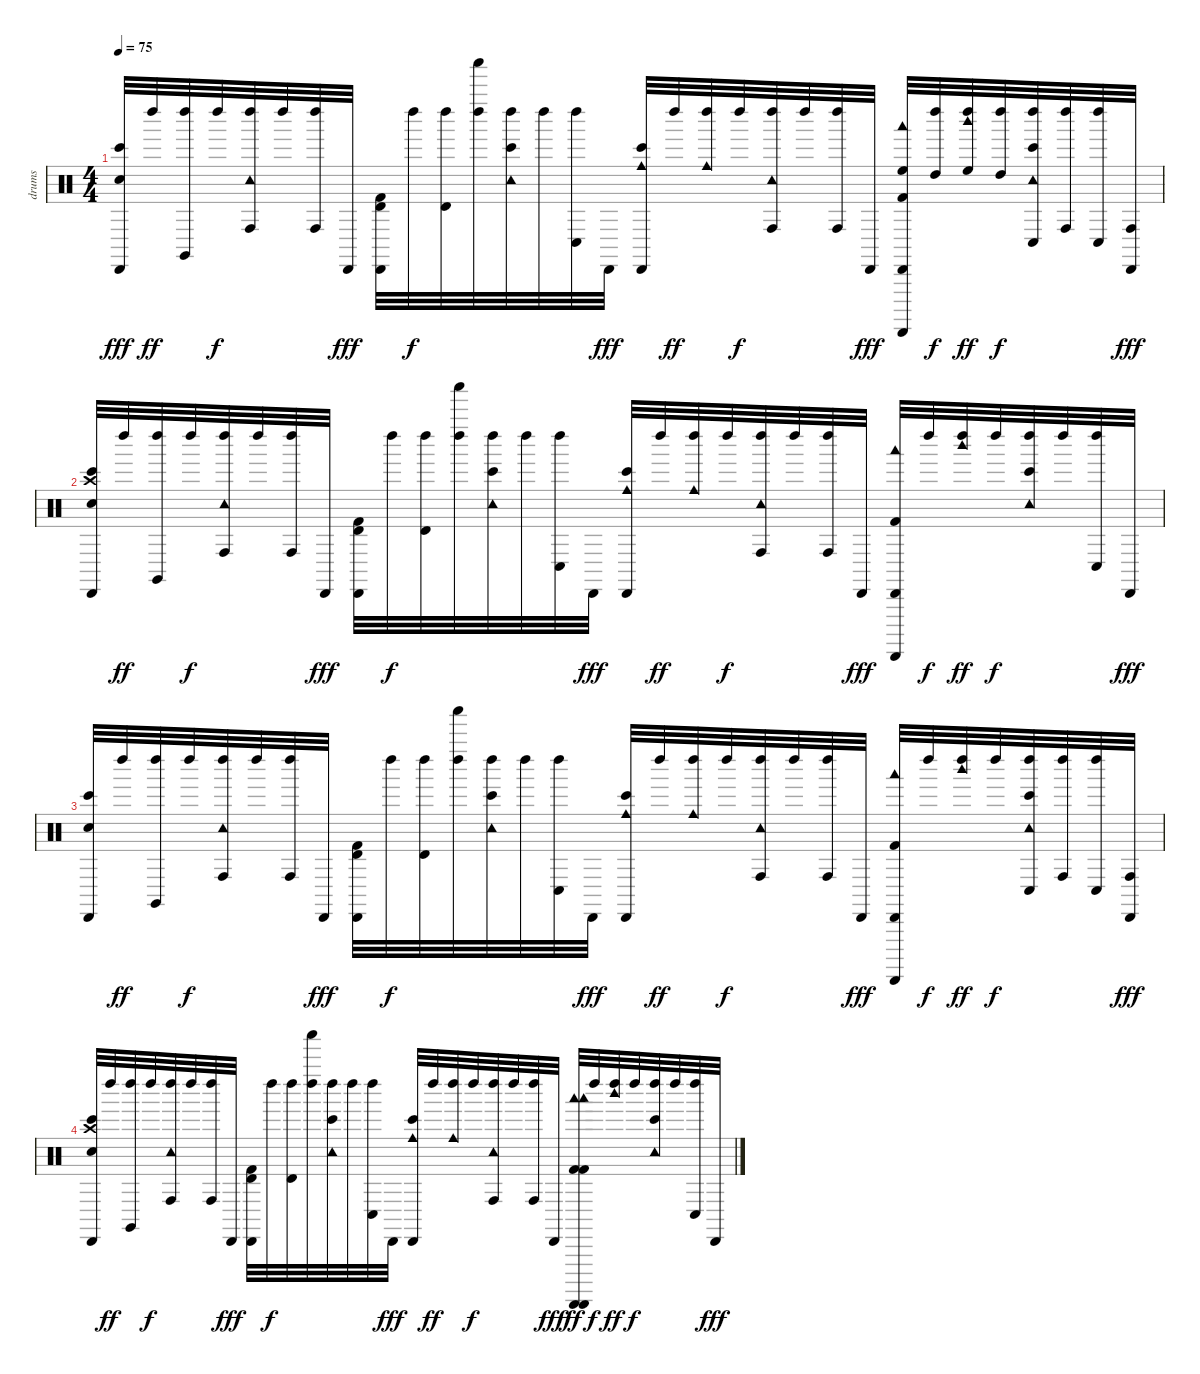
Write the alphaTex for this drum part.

\track ("drums" "drums") {instrument percussion}
\staff {score}
\articulation defaults
\ts (4 4)
\tempo 75
\clef neutral
\ks c
("Snare (hit) 2" "Bongo High (hit)" "Cabasa (hit)").32{dy fff} "Left Maraca (hit)".32{dy ff} ("Claves (hit)" "Left Maraca (hit)").32 "Left Maraca (hit)".32{dy f} ("Conga high (hit)" "Tambourine (hit)" "Left Maraca (hit)").32 "Left Maraca (hit)".32 ("Conga high (hit)" "Left Maraca (hit)").32 "Cabasa (hit)".32{dy fff} ("Timbale high (hit)" "Kick (hit) 2" "Cabasa (hit)").32 "Left Maraca (hit)".32{dy f} ("Timbale high (hit)" "Left Maraca (hit)").32 ("Left Maraca (hit)" "Shaker (hit)").32 ("Bongo High (hit)" "Tambourine (hit)" "Left Maraca (hit)").32 "Left Maraca (hit)".32 ("Conga low (hit)" "Left Maraca (hit)").32 "Cabasa (hit)".32{dy fff} ("Bongo High (hit)" "Cowbell medium (hit)" "Cabasa (hit)").32 "Left Maraca (hit)".32{dy ff} ("Cowbell medium (hit)" "Left Maraca (hit)").32 "Left Maraca (hit)".32{dy f} ("Conga high (hit)" "Tambourine (hit)" "Left Maraca (hit)").32 "Left Maraca (hit)".32 ("Conga high (hit)" "Left Maraca (hit)").32 "Cabasa (hit)".32{dy fff} ("High Floor Tom (hit)" "Kick (hit) 2" "Guiro (scrap-return)" "Woodblock low (hit)" "Cabasa (hit)").32 ("High Tom (hit)" "Left Maraca (hit)").32{dy f} ("High Floor Tom (hit)" "Woodblock high (hit)" "Left Maraca (hit)").32{dy ff} ("High Tom (hit)" "Left Maraca (hit)").32{dy f} ("Conga low (hit)" "Bongo High (hit)" "Tambourine (hit)" "Left Maraca (hit)").32 ("Conga high (hit)" "Left Maraca (hit)").32 ("Conga low (hit)" "Left Maraca (hit)").32 ("Conga high (hit)" "Cabasa (hit)").32{dy fff} |
("Bongo High (hit)" "Snare (hit) 2" "Crash high (hit)" "Cabasa (hit)").32 "Left Maraca (hit)".32{dy ff} ("Claves (hit)" "Left Maraca (hit)").32 "Left Maraca (hit)".32{dy f} ("Conga high (hit)" "Tambourine (hit)" "Left Maraca (hit)").32 "Left Maraca (hit)".32 ("Conga high (hit)" "Left Maraca (hit)").32 "Cabasa (hit)".32{dy fff} ("Timbale high (hit)" "Kick (hit) 2" "Cabasa (hit)").32 "Left Maraca (hit)".32{dy f} ("Timbale high (hit)" "Left Maraca (hit)").32 ("Left Maraca (hit)" "Shaker (hit)").32 ("Bongo High (hit)" "Tambourine (hit)" "Left Maraca (hit)").32 "Left Maraca (hit)".32 ("Conga low (hit)" "Left Maraca (hit)").32 "Cabasa (hit)".32{dy fff} ("Bongo High (hit)" "Cowbell medium (hit)" "Cabasa (hit)").32 "Left Maraca (hit)".32{dy ff} ("Cowbell medium (hit)" "Left Maraca (hit)").32 "Left Maraca (hit)".32{dy f} ("Conga high (hit)" "Tambourine (hit)" "Left Maraca (hit)").32 "Left Maraca (hit)".32 ("Conga high (hit)" "Left Maraca (hit)").32 "Cabasa (hit)".32{dy fff} ("Kick (hit) 2" "Guiro (scrap-return)" "Woodblock low (hit)" "Cabasa (hit)").32 "Left Maraca (hit)".32{dy f} ("Woodblock high (hit)" "Left Maraca (hit)").32{dy ff} "Left Maraca (hit)".32{dy f} ("Bongo High (hit)" "Tambourine (hit)" "Left Maraca (hit)").32 "Left Maraca (hit)".32 ("Conga low (hit)" "Left Maraca (hit)").32 "Cabasa (hit)".32{dy fff} |
("Snare (hit) 2" "Bongo High (hit)" "Cabasa (hit)").32 "Left Maraca (hit)".32{dy ff} ("Claves (hit)" "Left Maraca (hit)").32 "Left Maraca (hit)".32{dy f} ("Conga high (hit)" "Tambourine (hit)" "Left Maraca (hit)").32 "Left Maraca (hit)".32 ("Conga high (hit)" "Left Maraca (hit)").32 "Cabasa (hit)".32{dy fff} ("Timbale high (hit)" "Kick (hit) 2" "Cabasa (hit)").32 "Left Maraca (hit)".32{dy f} ("Timbale high (hit)" "Left Maraca (hit)").32 ("Left Maraca (hit)" "Shaker (hit)").32 ("Bongo High (hit)" "Tambourine (hit)" "Left Maraca (hit)").32 "Left Maraca (hit)".32 ("Conga low (hit)" "Left Maraca (hit)").32 "Cabasa (hit)".32{dy fff} ("Bongo High (hit)" "Cowbell medium (hit)" "Cabasa (hit)").32 "Left Maraca (hit)".32{dy ff} ("Cowbell medium (hit)" "Left Maraca (hit)").32 "Left Maraca (hit)".32{dy f} ("Conga high (hit)" "Tambourine (hit)" "Left Maraca (hit)").32 "Left Maraca (hit)".32 ("Conga high (hit)" "Left Maraca (hit)").32 "Cabasa (hit)".32{dy fff} ("Kick (hit) 2" "Guiro (scrap-return)" "Woodblock low (hit)" "Cabasa (hit)").32 "Left Maraca (hit)".32{dy f} ("Woodblock high (hit)" "Left Maraca (hit)").32{dy ff} "Left Maraca (hit)".32{dy f} ("Bongo High (hit)" "Conga low (hit)" "Tambourine (hit)" "Left Maraca (hit)").32 ("Conga high (hit)" "Left Maraca (hit)").32 ("Conga low (hit)" "Left Maraca (hit)").32 ("Conga high (hit)" "Cabasa (hit)").32{dy fff} |
("Crash high (hit)" "Snare (hit) 2" "Bongo High (hit)" "Cabasa (hit)").32 "Left Maraca (hit)".32{dy ff} ("Claves (hit)" "Left Maraca (hit)").32 "Left Maraca (hit)".32{dy f} ("Conga high (hit)" "Tambourine (hit)" "Left Maraca (hit)").32 "Left Maraca (hit)".32 ("Conga high (hit)" "Left Maraca (hit)").32 "Cabasa (hit)".32{dy fff} ("Timbale high (hit)" "Kick (hit) 2" "Cabasa (hit)").32 "Left Maraca (hit)".32{dy f} ("Timbale high (hit)" "Left Maraca (hit)").32 ("Left Maraca (hit)" "Shaker (hit)").32 ("Bongo High (hit)" "Tambourine (hit)" "Left Maraca (hit)").32 "Left Maraca (hit)".32 ("Conga low (hit)" "Left Maraca (hit)").32 "Cabasa (hit)".32{dy fff} ("Bongo High (hit)" "Cowbell medium (hit)" "Cabasa (hit)").32 "Left Maraca (hit)".32{dy ff} ("Cowbell medium (hit)" "Left Maraca (hit)").32 "Left Maraca (hit)".32{dy f} ("Conga high (hit)" "Tambourine (hit)" "Left Maraca (hit)").32 "Left Maraca (hit)".32 ("Conga high (hit)" "Left Maraca (hit)").32 "Cabasa (hit)".32{dy fff} ("Woodblock low (hit)" "Guiro (scrap-return)" "Kick (hit) 2" "Kick (hit) 2" "Guiro (scrap-return)" "Woodblock low (hit)").32{dy ff} "Left Maraca (hit)".32{dy f} ("Woodblock high (hit)" "Left Maraca (hit)").32{dy ff} "Left Maraca (hit)".32{dy f} ("Bongo High (hit)" "Tambourine (hit)" "Left Maraca (hit)").32 "Left Maraca (hit)".32 ("Conga low (hit)" "Left Maraca (hit)").32 "Cabasa (hit)".32{dy fff}
